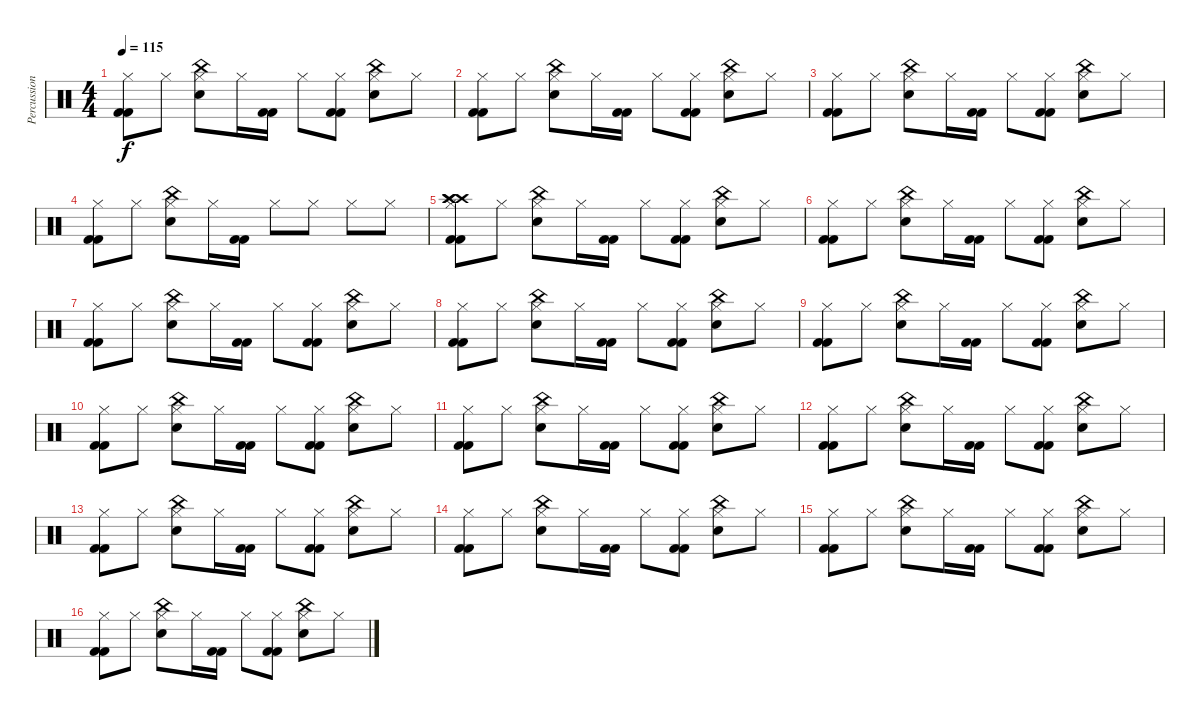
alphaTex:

\track ("Percussion" "Percussion") {instrument percussion}
\staff {score}
\articulation defaults
\ts (4 4)
\tempo 115
\clef neutral
\ks c
("Hi-Hat (closed)" "Kick (hit) 2" "Kick (hit) 2").8{dy f} "Hi-Hat (closed)".8 ("Hi-Hat (closed)" "Electric Snare (hit)" "China (hit)").8 "Hi-Hat (closed)".16 ("Kick (hit) 2" "Kick (hit) 2").16 "Hi-Hat (closed)".8 ("Hi-Hat (closed)" "Kick (hit) 2" "Kick (hit) 2").8 ("Hi-Hat (closed)" "Electric Snare (hit)" "China (hit)").8 "Hi-Hat (closed)".8 |
("Hi-Hat (closed)" "Kick (hit) 2" "Kick (hit) 2").8 "Hi-Hat (closed)".8 ("Hi-Hat (closed)" "Electric Snare (hit)" "China (hit)").8 "Hi-Hat (closed)".16 ("Kick (hit) 2" "Kick (hit) 2").16 "Hi-Hat (closed)".8 ("Hi-Hat (closed)" "Kick (hit) 2" "Kick (hit) 2").8 ("Hi-Hat (closed)" "Electric Snare (hit)" "China (hit)").8 "Hi-Hat (closed)".8 |
("Hi-Hat (closed)" "Kick (hit) 2" "Kick (hit) 2").8 "Hi-Hat (closed)".8 ("Hi-Hat (closed)" "Electric Snare (hit)" "China (hit)").8 "Hi-Hat (closed)".16 ("Kick (hit) 2" "Kick (hit) 2").16 "Hi-Hat (closed)".8 ("Hi-Hat (closed)" "Kick (hit) 2" "Kick (hit) 2").8 ("Hi-Hat (closed)" "Electric Snare (hit)" "China (hit)").8 "Hi-Hat (closed)".8 |
("Hi-Hat (closed)" "Kick (hit) 2" "Kick (hit) 2").8 "Hi-Hat (closed)".8 ("Hi-Hat (closed)" "Electric Snare (hit)" "China (hit)").8 "Hi-Hat (closed)".16 ("Kick (hit) 2" "Kick (hit) 2").16 "Hi-Hat (closed)".8 "Hi-Hat (closed)".8 "Hi-Hat (closed)".8 "Hi-Hat (closed)".8 |
("Hi-Hat (closed)" "Kick (hit) 2" "Kick (hit) 2" "Crash high (hit)" "Crash high (hit)" "Crash high (hit)").8 "Hi-Hat (closed)".8 ("Hi-Hat (closed)" "Electric Snare (hit)" "China (hit)").8 "Hi-Hat (closed)".16 ("Kick (hit) 2" "Kick (hit) 2").16 "Hi-Hat (closed)".8 ("Hi-Hat (closed)" "Kick (hit) 2" "Kick (hit) 2").8 ("Hi-Hat (closed)" "Electric Snare (hit)" "China (hit)").8 "Hi-Hat (closed)".8 |
("Hi-Hat (closed)" "Kick (hit) 2" "Kick (hit) 2").8 "Hi-Hat (closed)".8 ("Hi-Hat (closed)" "Electric Snare (hit)" "China (hit)").8 "Hi-Hat (closed)".16 ("Kick (hit) 2" "Kick (hit) 2").16 "Hi-Hat (closed)".8 ("Hi-Hat (closed)" "Kick (hit) 2" "Kick (hit) 2").8 ("Hi-Hat (closed)" "Electric Snare (hit)" "China (hit)").8 "Hi-Hat (closed)".8 |
("Hi-Hat (closed)" "Kick (hit) 2" "Kick (hit) 2").8 "Hi-Hat (closed)".8 ("Hi-Hat (closed)" "Electric Snare (hit)" "China (hit)").8 "Hi-Hat (closed)".16 ("Kick (hit) 2" "Kick (hit) 2").16 "Hi-Hat (closed)".8 ("Hi-Hat (closed)" "Kick (hit) 2" "Kick (hit) 2").8 ("Hi-Hat (closed)" "Electric Snare (hit)" "China (hit)").8 "Hi-Hat (closed)".8 |
("Hi-Hat (closed)" "Kick (hit) 2" "Kick (hit) 2").8 "Hi-Hat (closed)".8 ("Hi-Hat (closed)" "Electric Snare (hit)" "China (hit)").8 "Hi-Hat (closed)".16 ("Kick (hit) 2" "Kick (hit) 2").16 "Hi-Hat (closed)".8 ("Hi-Hat (closed)" "Kick (hit) 2" "Kick (hit) 2").8 ("Hi-Hat (closed)" "Electric Snare (hit)" "China (hit)").8 "Hi-Hat (closed)".8 |
("Hi-Hat (closed)" "Kick (hit) 2" "Kick (hit) 2").8 "Hi-Hat (closed)".8 ("Hi-Hat (closed)" "Electric Snare (hit)" "China (hit)").8 "Hi-Hat (closed)".16 ("Kick (hit) 2" "Kick (hit) 2").16 "Hi-Hat (closed)".8 ("Hi-Hat (closed)" "Kick (hit) 2" "Kick (hit) 2").8 ("Hi-Hat (closed)" "Electric Snare (hit)" "China (hit)").8 "Hi-Hat (closed)".8 |
("Hi-Hat (closed)" "Kick (hit) 2" "Kick (hit) 2").8 "Hi-Hat (closed)".8 ("Hi-Hat (closed)" "Electric Snare (hit)" "China (hit)").8 "Hi-Hat (closed)".16 ("Kick (hit) 2" "Kick (hit) 2").16 "Hi-Hat (closed)".8 ("Hi-Hat (closed)" "Kick (hit) 2" "Kick (hit) 2").8 ("Hi-Hat (closed)" "Electric Snare (hit)" "China (hit)").8 "Hi-Hat (closed)".8 |
("Hi-Hat (closed)" "Kick (hit) 2" "Kick (hit) 2").8 "Hi-Hat (closed)".8 ("Hi-Hat (closed)" "Electric Snare (hit)" "China (hit)").8 "Hi-Hat (closed)".16 ("Kick (hit) 2" "Kick (hit) 2").16 "Hi-Hat (closed)".8 ("Hi-Hat (closed)" "Kick (hit) 2" "Kick (hit) 2").8 ("Hi-Hat (closed)" "Electric Snare (hit)" "China (hit)").8 "Hi-Hat (closed)".8 |
("Hi-Hat (closed)" "Kick (hit) 2" "Kick (hit) 2").8 "Hi-Hat (closed)".8 ("Hi-Hat (closed)" "Electric Snare (hit)" "China (hit)").8 "Hi-Hat (closed)".16 ("Kick (hit) 2" "Kick (hit) 2").16 "Hi-Hat (closed)".8 ("Hi-Hat (closed)" "Kick (hit) 2" "Kick (hit) 2").8 ("Hi-Hat (closed)" "Electric Snare (hit)" "China (hit)").8 "Hi-Hat (closed)".8 |
("Hi-Hat (closed)" "Kick (hit) 2" "Kick (hit) 2").8 "Hi-Hat (closed)".8 ("Hi-Hat (closed)" "Electric Snare (hit)" "China (hit)").8 "Hi-Hat (closed)".16 ("Kick (hit) 2" "Kick (hit) 2").16 "Hi-Hat (closed)".8 ("Hi-Hat (closed)" "Kick (hit) 2" "Kick (hit) 2").8 ("Hi-Hat (closed)" "Electric Snare (hit)" "China (hit)").8 "Hi-Hat (closed)".8 |
("Hi-Hat (closed)" "Kick (hit) 2" "Kick (hit) 2").8 "Hi-Hat (closed)".8 ("Hi-Hat (closed)" "Electric Snare (hit)" "China (hit)").8 "Hi-Hat (closed)".16 ("Kick (hit) 2" "Kick (hit) 2").16 "Hi-Hat (closed)".8 ("Hi-Hat (closed)" "Kick (hit) 2" "Kick (hit) 2").8 ("Hi-Hat (closed)" "Electric Snare (hit)" "China (hit)").8 "Hi-Hat (closed)".8 |
("Hi-Hat (closed)" "Kick (hit) 2" "Kick (hit) 2").8 "Hi-Hat (closed)".8 ("Hi-Hat (closed)" "Electric Snare (hit)" "China (hit)").8 "Hi-Hat (closed)".16 ("Kick (hit) 2" "Kick (hit) 2").16 "Hi-Hat (closed)".8 ("Hi-Hat (closed)" "Kick (hit) 2" "Kick (hit) 2").8 ("Hi-Hat (closed)" "Electric Snare (hit)" "China (hit)").8 "Hi-Hat (closed)".8 |
("Hi-Hat (closed)" "Kick (hit) 2" "Kick (hit) 2").8 "Hi-Hat (closed)".8 ("Hi-Hat (closed)" "Electric Snare (hit)" "China (hit)").8 "Hi-Hat (closed)".16 ("Kick (hit) 2" "Kick (hit) 2").16 "Hi-Hat (closed)".8 ("Hi-Hat (closed)" "Kick (hit) 2" "Kick (hit) 2").8 ("Hi-Hat (closed)" "Electric Snare (hit)" "China (hit)").8 "Hi-Hat (closed)".8
